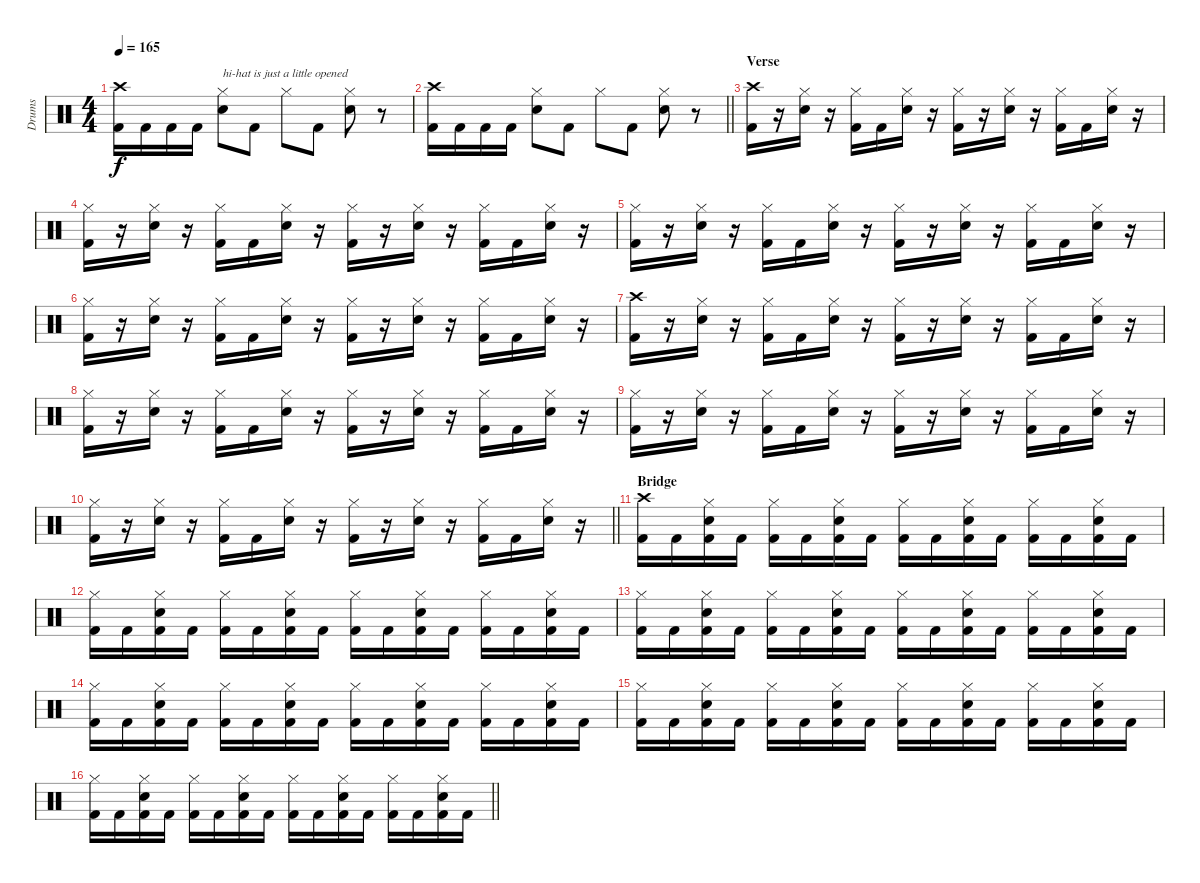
\track ("Drums" "Drums") {instrument percussion}
\staff {score}
\articulation defaults
\ts (4 4)
\tempo 165
\clef neutral
\ks c
("Crash high (hit)" "Kick (hit) 2").16{dy f} "Kick (hit) 2".16 "Kick (hit) 2".16 "Kick (hit) 2".16 ("Hi-Hat (closed)" "Electric Snare (hit)").8{txt "hi-hat is just a little opened"} "Kick (hit) 2".8 "Hi-Hat (closed)".8 "Kick (hit) 2".8 ("Hi-Hat (closed)" "Electric Snare (hit)").8 r.8 |
\barLineRight lightlight
("Crash high (hit)" "Kick (hit) 2").16 "Kick (hit) 2".16 "Kick (hit) 2".16 "Kick (hit) 2".16 ("Hi-Hat (closed)" "Electric Snare (hit)").8 "Kick (hit) 2".8 "Hi-Hat (closed)".8 "Kick (hit) 2".8 ("Hi-Hat (closed)" "Electric Snare (hit)").8 r.8 |
\section ("" "Verse")
("Crash high (hit)" "Kick (hit) 2").16 r.16 ("Hi-Hat (closed)" "Electric Snare (hit)").16 r.16 ("Hi-Hat (closed)" "Kick (hit) 2").16 "Kick (hit) 2".16 ("Hi-Hat (closed)" "Electric Snare (hit)").16 r.16 ("Hi-Hat (closed)" "Kick (hit) 2").16 r.16 ("Hi-Hat (closed)" "Electric Snare (hit)").16 r.16 ("Hi-Hat (closed)" "Kick (hit) 2").16 "Kick (hit) 2".16 ("Hi-Hat (closed)" "Electric Snare (hit)").16 r.16 |
("Hi-Hat (closed)" "Kick (hit) 2").16 r.16 ("Hi-Hat (closed)" "Electric Snare (hit)").16 r.16 ("Hi-Hat (closed)" "Kick (hit) 2").16 "Kick (hit) 2".16 ("Hi-Hat (closed)" "Electric Snare (hit)").16 r.16 ("Hi-Hat (closed)" "Kick (hit) 2").16 r.16 ("Hi-Hat (closed)" "Electric Snare (hit)").16 r.16 ("Hi-Hat (closed)" "Kick (hit) 2").16 "Kick (hit) 2".16 ("Hi-Hat (closed)" "Electric Snare (hit)").16 r.16 |
("Hi-Hat (closed)" "Kick (hit) 2").16 r.16 ("Hi-Hat (closed)" "Electric Snare (hit)").16 r.16 ("Hi-Hat (closed)" "Kick (hit) 2").16 "Kick (hit) 2".16 ("Hi-Hat (closed)" "Electric Snare (hit)").16 r.16 ("Hi-Hat (closed)" "Kick (hit) 2").16 r.16 ("Hi-Hat (closed)" "Electric Snare (hit)").16 r.16 ("Hi-Hat (closed)" "Kick (hit) 2").16 "Kick (hit) 2".16 ("Hi-Hat (closed)" "Electric Snare (hit)").16 r.16 |
("Hi-Hat (closed)" "Kick (hit) 2").16 r.16 ("Hi-Hat (closed)" "Electric Snare (hit)").16 r.16 ("Hi-Hat (closed)" "Kick (hit) 2").16 "Kick (hit) 2".16 ("Hi-Hat (closed)" "Electric Snare (hit)").16 r.16 ("Hi-Hat (closed)" "Kick (hit) 2").16 r.16 ("Hi-Hat (closed)" "Electric Snare (hit)").16 r.16 ("Hi-Hat (closed)" "Kick (hit) 2").16 "Kick (hit) 2".16 ("Hi-Hat (closed)" "Electric Snare (hit)").16 r.16 |
("Crash high (hit)" "Kick (hit) 2").16 r.16 ("Hi-Hat (closed)" "Electric Snare (hit)").16 r.16 ("Hi-Hat (closed)" "Kick (hit) 2").16 "Kick (hit) 2".16 ("Hi-Hat (closed)" "Electric Snare (hit)").16 r.16 ("Hi-Hat (closed)" "Kick (hit) 2").16 r.16 ("Hi-Hat (closed)" "Electric Snare (hit)").16 r.16 ("Hi-Hat (closed)" "Kick (hit) 2").16 "Kick (hit) 2".16 ("Hi-Hat (closed)" "Electric Snare (hit)").16 r.16 |
("Hi-Hat (closed)" "Kick (hit) 2").16 r.16 ("Hi-Hat (closed)" "Electric Snare (hit)").16 r.16 ("Hi-Hat (closed)" "Kick (hit) 2").16 "Kick (hit) 2".16 ("Hi-Hat (closed)" "Electric Snare (hit)").16 r.16 ("Hi-Hat (closed)" "Kick (hit) 2").16 r.16 ("Hi-Hat (closed)" "Electric Snare (hit)").16 r.16 ("Hi-Hat (closed)" "Kick (hit) 2").16 "Kick (hit) 2".16 ("Hi-Hat (closed)" "Electric Snare (hit)").16 r.16 |
("Hi-Hat (closed)" "Kick (hit) 2").16 r.16 ("Hi-Hat (closed)" "Electric Snare (hit)").16 r.16 ("Hi-Hat (closed)" "Kick (hit) 2").16 "Kick (hit) 2".16 ("Hi-Hat (closed)" "Electric Snare (hit)").16 r.16 ("Hi-Hat (closed)" "Kick (hit) 2").16 r.16 ("Hi-Hat (closed)" "Electric Snare (hit)").16 r.16 ("Hi-Hat (closed)" "Kick (hit) 2").16 "Kick (hit) 2".16 ("Hi-Hat (closed)" "Electric Snare (hit)").16 r.16 |
\barLineRight lightlight
("Hi-Hat (closed)" "Kick (hit) 2").16 r.16 ("Hi-Hat (closed)" "Electric Snare (hit)").16 r.16 ("Hi-Hat (closed)" "Kick (hit) 2").16 "Kick (hit) 2".16 ("Hi-Hat (closed)" "Electric Snare (hit)").16 r.16 ("Hi-Hat (closed)" "Kick (hit) 2").16 r.16 ("Hi-Hat (closed)" "Electric Snare (hit)").16 r.16 ("Hi-Hat (closed)" "Kick (hit) 2").16 "Kick (hit) 2".16 ("Hi-Hat (closed)" "Electric Snare (hit)").16 r.16 |
\section ("" "Bridge")
("Crash high (hit)" "Kick (hit) 2").16 "Kick (hit) 2".16 ("Hi-Hat (closed)" "Electric Snare (hit)" "Kick (hit) 2").16 "Kick (hit) 2".16 ("Hi-Hat (closed)" "Kick (hit) 2").16 "Kick (hit) 2".16 ("Hi-Hat (closed)" "Electric Snare (hit)" "Kick (hit) 2").16 "Kick (hit) 2".16 ("Hi-Hat (closed)" "Kick (hit) 2").16 "Kick (hit) 2".16 ("Hi-Hat (closed)" "Electric Snare (hit)" "Kick (hit) 2").16 "Kick (hit) 2".16 ("Hi-Hat (closed)" "Kick (hit) 2").16 "Kick (hit) 2".16 ("Hi-Hat (closed)" "Electric Snare (hit)" "Kick (hit) 2").16 "Kick (hit) 2".16 |
("Hi-Hat (closed)" "Kick (hit) 2").16 "Kick (hit) 2".16 ("Hi-Hat (closed)" "Electric Snare (hit)" "Kick (hit) 2").16 "Kick (hit) 2".16 ("Hi-Hat (closed)" "Kick (hit) 2").16 "Kick (hit) 2".16 ("Hi-Hat (closed)" "Electric Snare (hit)" "Kick (hit) 2").16 "Kick (hit) 2".16 ("Hi-Hat (closed)" "Kick (hit) 2").16 "Kick (hit) 2".16 ("Hi-Hat (closed)" "Electric Snare (hit)" "Kick (hit) 2").16 "Kick (hit) 2".16 ("Hi-Hat (closed)" "Kick (hit) 2").16 "Kick (hit) 2".16 ("Hi-Hat (closed)" "Electric Snare (hit)" "Kick (hit) 2").16 "Kick (hit) 2".16 |
("Hi-Hat (closed)" "Kick (hit) 2").16 "Kick (hit) 2".16 ("Hi-Hat (closed)" "Electric Snare (hit)" "Kick (hit) 2").16 "Kick (hit) 2".16 ("Hi-Hat (closed)" "Kick (hit) 2").16 "Kick (hit) 2".16 ("Hi-Hat (closed)" "Electric Snare (hit)" "Kick (hit) 2").16 "Kick (hit) 2".16 ("Hi-Hat (closed)" "Kick (hit) 2").16 "Kick (hit) 2".16 ("Hi-Hat (closed)" "Electric Snare (hit)" "Kick (hit) 2").16 "Kick (hit) 2".16 ("Hi-Hat (closed)" "Kick (hit) 2").16 "Kick (hit) 2".16 ("Hi-Hat (closed)" "Electric Snare (hit)" "Kick (hit) 2").16 "Kick (hit) 2".16 |
("Hi-Hat (closed)" "Kick (hit) 2").16 "Kick (hit) 2".16 ("Hi-Hat (closed)" "Electric Snare (hit)" "Kick (hit) 2").16 "Kick (hit) 2".16 ("Hi-Hat (closed)" "Kick (hit) 2").16 "Kick (hit) 2".16 ("Hi-Hat (closed)" "Electric Snare (hit)" "Kick (hit) 2").16 "Kick (hit) 2".16 ("Hi-Hat (closed)" "Kick (hit) 2").16 "Kick (hit) 2".16 ("Hi-Hat (closed)" "Electric Snare (hit)" "Kick (hit) 2").16 "Kick (hit) 2".16 ("Hi-Hat (closed)" "Kick (hit) 2").16 "Kick (hit) 2".16 ("Hi-Hat (closed)" "Electric Snare (hit)" "Kick (hit) 2").16 "Kick (hit) 2".16 |
("Hi-Hat (closed)" "Kick (hit) 2").16 "Kick (hit) 2".16 ("Hi-Hat (closed)" "Electric Snare (hit)" "Kick (hit) 2").16 "Kick (hit) 2".16 ("Hi-Hat (closed)" "Kick (hit) 2").16 "Kick (hit) 2".16 ("Hi-Hat (closed)" "Electric Snare (hit)" "Kick (hit) 2").16 "Kick (hit) 2".16 ("Hi-Hat (closed)" "Kick (hit) 2").16 "Kick (hit) 2".16 ("Hi-Hat (closed)" "Electric Snare (hit)" "Kick (hit) 2").16 "Kick (hit) 2".16 ("Hi-Hat (closed)" "Kick (hit) 2").16 "Kick (hit) 2".16 ("Hi-Hat (closed)" "Electric Snare (hit)" "Kick (hit) 2").16 "Kick (hit) 2".16 |
\barLineRight lightlight
("Hi-Hat (closed)" "Kick (hit) 2").16 "Kick (hit) 2".16 ("Hi-Hat (closed)" "Electric Snare (hit)" "Kick (hit) 2").16 "Kick (hit) 2".16 ("Hi-Hat (closed)" "Kick (hit) 2").16 "Kick (hit) 2".16 ("Hi-Hat (closed)" "Electric Snare (hit)" "Kick (hit) 2").16 "Kick (hit) 2".16 ("Hi-Hat (closed)" "Kick (hit) 2").16 "Kick (hit) 2".16 ("Hi-Hat (closed)" "Electric Snare (hit)" "Kick (hit) 2").16 "Kick (hit) 2".16 ("Hi-Hat (closed)" "Kick (hit) 2").16 "Kick (hit) 2".16 ("Hi-Hat (closed)" "Electric Snare (hit)" "Kick (hit) 2").16 "Kick (hit) 2".16
